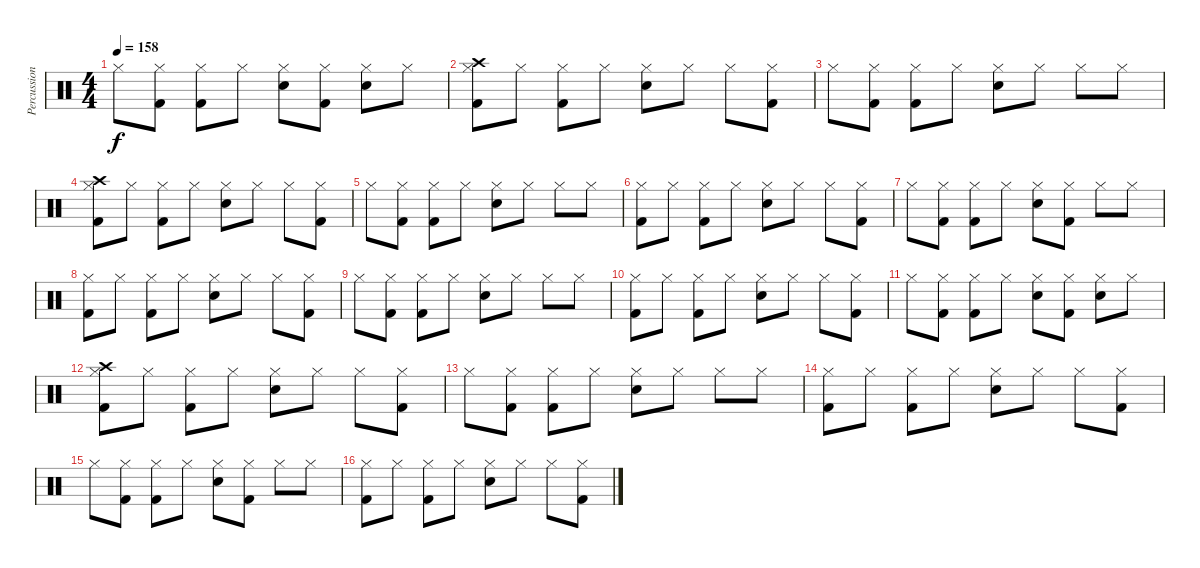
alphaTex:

\track ("Percussion" "Percussion") {instrument percussion}
\staff {score}
\articulation defaults
\ts (4 4)
\tempo 158
\clef neutral
\ks c "Hi-Hat (closed)".8{dy f}
("Hi-Hat (closed)" "Kick (hit) 2").8 ("Hi-Hat (closed)" "Kick (hit) 2").8 "Hi-Hat (closed)".8 ("Hi-Hat (closed)" "Electric Snare (hit)").8 ("Hi-Hat (closed)" "Kick (hit) 2").8 ("Hi-Hat (closed)" "Electric Snare (hit)").8 "Hi-Hat (closed)".8 |
("Hi-Hat (closed)" "Kick (hit) 2" "Crash high (hit)").8 "Hi-Hat (closed)".8 ("Hi-Hat (closed)" "Kick (hit) 2").8 "Hi-Hat (closed)".8 ("Hi-Hat (closed)" "Electric Snare (hit)").8 "Hi-Hat (closed)".8 "Hi-Hat (closed)".8 ("Hi-Hat (closed)" "Kick (hit) 2").8 |
"Hi-Hat (closed)".8 ("Hi-Hat (closed)" "Kick (hit) 2").8 ("Hi-Hat (closed)" "Kick (hit) 2").8 "Hi-Hat (closed)".8 ("Hi-Hat (closed)" "Electric Snare (hit)").8 "Hi-Hat (closed)".8 "Hi-Hat (closed)".8 "Hi-Hat (closed)".8 |
("Hi-Hat (closed)" "Kick (hit) 2" "Crash high (hit)").8 "Hi-Hat (closed)".8 ("Hi-Hat (closed)" "Kick (hit) 2").8 "Hi-Hat (closed)".8 ("Hi-Hat (closed)" "Electric Snare (hit)").8 "Hi-Hat (closed)".8 "Hi-Hat (closed)".8 ("Hi-Hat (closed)" "Kick (hit) 2").8 |
"Hi-Hat (closed)".8 ("Hi-Hat (closed)" "Kick (hit) 2").8 ("Hi-Hat (closed)" "Kick (hit) 2").8 "Hi-Hat (closed)".8 ("Hi-Hat (closed)" "Electric Snare (hit)").8 "Hi-Hat (closed)".8 "Hi-Hat (closed)".8 "Hi-Hat (closed)".8 |
("Hi-Hat (closed)" "Kick (hit) 2").8 "Hi-Hat (closed)".8 ("Hi-Hat (closed)" "Kick (hit) 2").8 "Hi-Hat (closed)".8 ("Hi-Hat (closed)" "Electric Snare (hit)").8 "Hi-Hat (closed)".8 "Hi-Hat (closed)".8 ("Hi-Hat (closed)" "Kick (hit) 2").8 |
"Hi-Hat (closed)".8 ("Hi-Hat (closed)" "Kick (hit) 2").8 ("Hi-Hat (closed)" "Kick (hit) 2").8 "Hi-Hat (closed)".8 ("Hi-Hat (closed)" "Electric Snare (hit)").8 ("Hi-Hat (closed)" "Kick (hit) 2").8 "Hi-Hat (closed)".8 "Hi-Hat (closed)".8 |
("Hi-Hat (closed)" "Kick (hit) 2").8 "Hi-Hat (closed)".8 ("Hi-Hat (closed)" "Kick (hit) 2").8 "Hi-Hat (closed)".8 ("Hi-Hat (closed)" "Electric Snare (hit)").8 "Hi-Hat (closed)".8 "Hi-Hat (closed)".8 ("Hi-Hat (closed)" "Kick (hit) 2").8 |
"Hi-Hat (closed)".8 ("Hi-Hat (closed)" "Kick (hit) 2").8 ("Hi-Hat (closed)" "Kick (hit) 2").8 "Hi-Hat (closed)".8 ("Hi-Hat (closed)" "Electric Snare (hit)").8 "Hi-Hat (closed)".8 "Hi-Hat (closed)".8 "Hi-Hat (closed)".8 |
("Hi-Hat (closed)" "Kick (hit) 2").8 "Hi-Hat (closed)".8 ("Hi-Hat (closed)" "Kick (hit) 2").8 "Hi-Hat (closed)".8 ("Hi-Hat (closed)" "Snare (hit) 2").8 "Hi-Hat (closed)".8 "Hi-Hat (closed)".8 ("Hi-Hat (closed)" "Kick (hit) 2").8 |
"Hi-Hat (closed)".8 ("Hi-Hat (closed)" "Kick (hit) 2").8 ("Hi-Hat (closed)" "Kick (hit) 2").8 "Hi-Hat (closed)".8 ("Hi-Hat (closed)" "Electric Snare (hit)").8 ("Hi-Hat (closed)" "Kick (hit) 2").8 ("Hi-Hat (closed)" "Electric Snare (hit)").8 "Hi-Hat (closed)".8 |
("Hi-Hat (closed)" "Kick (hit) 2" "Crash high (hit)").8 "Hi-Hat (closed)".8 ("Hi-Hat (closed)" "Kick (hit) 2").8 "Hi-Hat (closed)".8 ("Hi-Hat (closed)" "Electric Snare (hit)").8 "Hi-Hat (closed)".8 "Hi-Hat (closed)".8 ("Hi-Hat (closed)" "Kick (hit) 2").8 |
"Hi-Hat (closed)".8 ("Hi-Hat (closed)" "Kick (hit) 2").8 ("Hi-Hat (closed)" "Kick (hit) 2").8 "Hi-Hat (closed)".8 ("Hi-Hat (closed)" "Electric Snare (hit)").8 "Hi-Hat (closed)".8 "Hi-Hat (closed)".8 "Hi-Hat (closed)".8 |
("Hi-Hat (closed)" "Kick (hit) 2").8 "Hi-Hat (closed)".8 ("Hi-Hat (closed)" "Kick (hit) 2").8 "Hi-Hat (closed)".8 ("Hi-Hat (closed)" "Electric Snare (hit)").8 "Hi-Hat (closed)".8 "Hi-Hat (closed)".8 ("Hi-Hat (closed)" "Kick (hit) 2").8 |
"Hi-Hat (closed)".8 ("Hi-Hat (closed)" "Kick (hit) 2").8 ("Hi-Hat (closed)" "Kick (hit) 2").8 "Hi-Hat (closed)".8 ("Hi-Hat (closed)" "Electric Snare (hit)").8 ("Hi-Hat (closed)" "Kick (hit) 2").8 "Hi-Hat (closed)".8 "Hi-Hat (closed)".8 |
("Hi-Hat (closed)" "Kick (hit) 2").8 "Hi-Hat (closed)".8 ("Hi-Hat (closed)" "Kick (hit) 2").8 "Hi-Hat (closed)".8 ("Hi-Hat (closed)" "Electric Snare (hit)").8 "Hi-Hat (closed)".8 "Hi-Hat (closed)".8 ("Hi-Hat (closed)" "Kick (hit) 2").8
